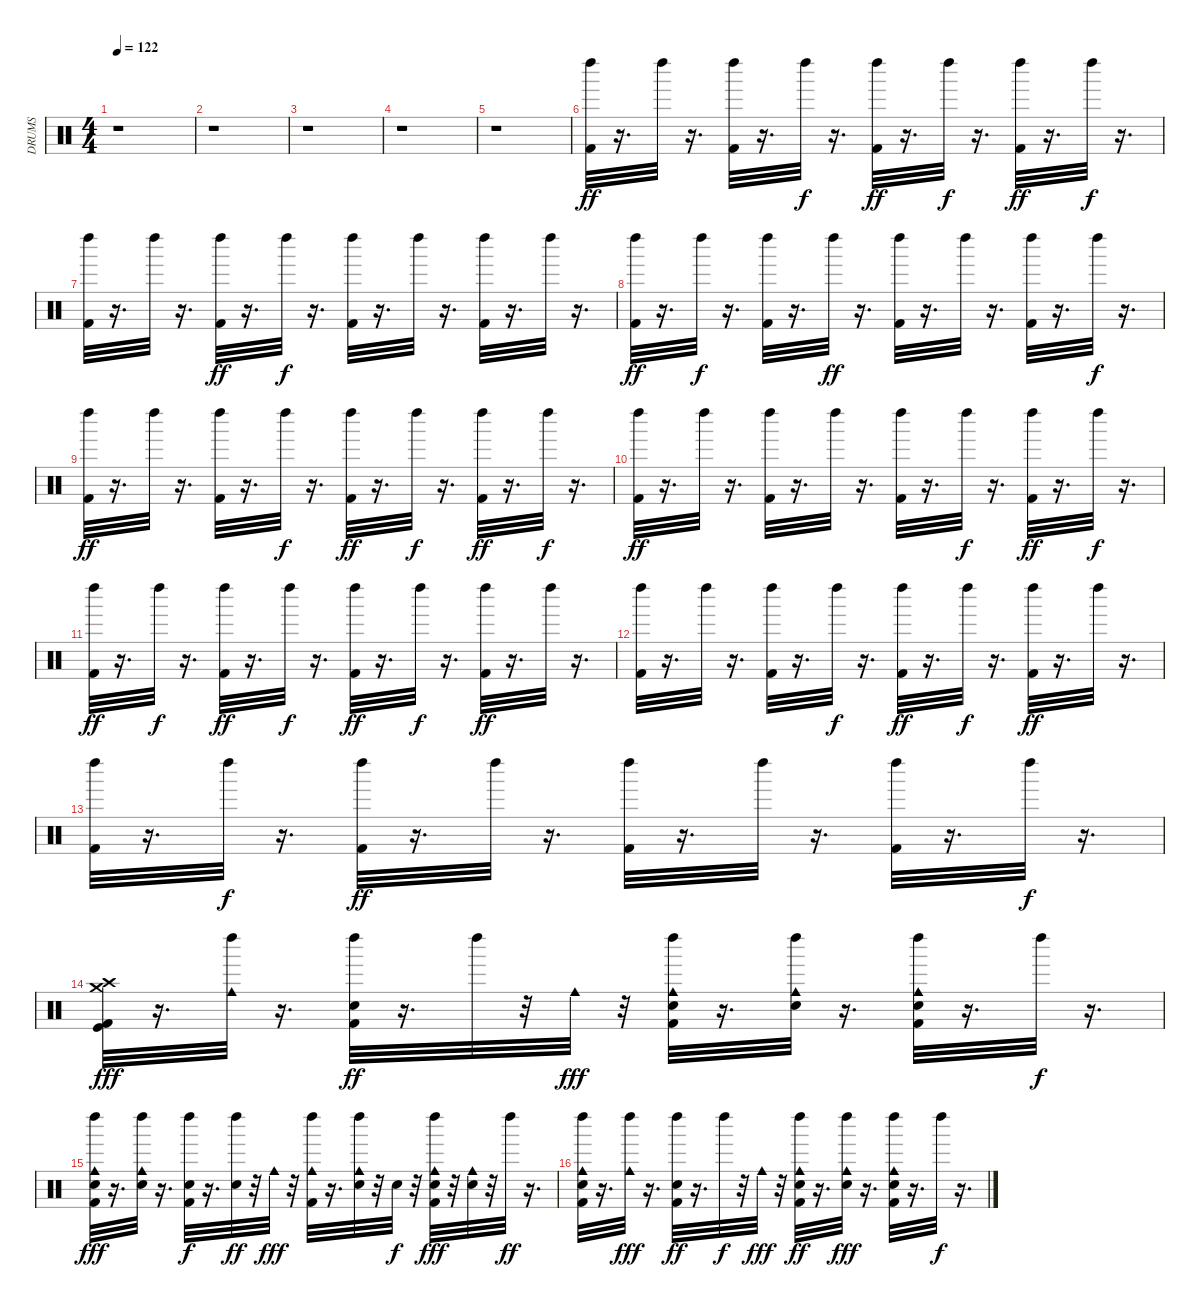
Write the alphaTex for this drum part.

\track ("DRUMS" "DRUMS") {instrument percussion}
\staff {score}
\articulation defaults
\ts (4 4)
\tempo 122
\clef neutral
\ks c
r.1{dy ff} |
r.1 |
r.1 |
r.1 |
r.1 |
("Left Maraca (hit)" "Kick (hit) 2").32 r.16{d} "Left Maraca (hit)".32 r.16{d} ("Left Maraca (hit)" "Kick (hit) 2").32 r.16{d} "Left Maraca (hit)".32{dy f} r.16{d} ("Left Maraca (hit)" "Kick (hit) 2").32{dy ff} r.16{d} "Left Maraca (hit)".32{dy f} r.16{d} ("Left Maraca (hit)" "Kick (hit) 2").32{dy ff} r.16{d} "Left Maraca (hit)".32{dy f} r.16{d} |
("Left Maraca (hit)" "Kick (hit) 2").32 r.16{d} "Left Maraca (hit)".32 r.16{d} ("Left Maraca (hit)" "Kick (hit) 2").32{dy ff} r.16{d} "Left Maraca (hit)".32{dy f} r.16{d} ("Left Maraca (hit)" "Kick (hit) 2").32 r.16{d} "Left Maraca (hit)".32 r.16{d} ("Left Maraca (hit)" "Kick (hit) 2").32 r.16{d} "Left Maraca (hit)".32 r.16{d} |
("Left Maraca (hit)" "Kick (hit) 2").32{dy ff} r.16{d} "Left Maraca (hit)".32{dy f} r.16{d} ("Left Maraca (hit)" "Kick (hit) 2").32 r.16{d} "Left Maraca (hit)".32{dy ff} r.16{d} ("Left Maraca (hit)" "Kick (hit) 2").32 r.16{d} "Left Maraca (hit)".32 r.16{d} ("Left Maraca (hit)" "Kick (hit) 2").32 r.16{d} "Left Maraca (hit)".32{dy f} r.16{d} |
("Left Maraca (hit)" "Kick (hit) 2").32{dy ff} r.16{d} "Left Maraca (hit)".32 r.16{d} ("Left Maraca (hit)" "Kick (hit) 2").32 r.16{d} "Left Maraca (hit)".32{dy f} r.16{d} ("Left Maraca (hit)" "Kick (hit) 2").32{dy ff} r.16{d} "Left Maraca (hit)".32{dy f} r.16{d} ("Left Maraca (hit)" "Kick (hit) 2").32{dy ff} r.16{d} "Left Maraca (hit)".32{dy f} r.16{d} |
("Left Maraca (hit)" "Kick (hit) 2").32{dy ff} r.16{d} "Left Maraca (hit)".32 r.16{d} ("Left Maraca (hit)" "Kick (hit) 2").32 r.16{d} "Left Maraca (hit)".32 r.16{d} ("Left Maraca (hit)" "Kick (hit) 2").32 r.16{d} "Left Maraca (hit)".32{dy f} r.16{d} ("Left Maraca (hit)" "Kick (hit) 2").32{dy ff} r.16{d} "Left Maraca (hit)".32{dy f} r.16{d} |
("Left Maraca (hit)" "Kick (hit) 2").32{dy ff} r.16{d} "Left Maraca (hit)".32{dy f} r.16{d} ("Left Maraca (hit)" "Kick (hit) 2").32{dy ff} r.16{d} "Left Maraca (hit)".32{dy f} r.16{d} ("Left Maraca (hit)" "Kick (hit) 2").32{dy ff} r.16{d} "Left Maraca (hit)".32{dy f} r.16{d} ("Left Maraca (hit)" "Kick (hit) 2").32{dy ff} r.16{d} "Left Maraca (hit)".32 r.16{d} |
("Left Maraca (hit)" "Kick (hit) 2").32 r.16{d} "Left Maraca (hit)".32 r.16{d} ("Left Maraca (hit)" "Kick (hit) 2").32 r.16{d} "Left Maraca (hit)".32{dy f} r.16{d} ("Left Maraca (hit)" "Kick (hit) 2").32{dy ff} r.16{d} "Left Maraca (hit)".32{dy f} r.16{d} ("Left Maraca (hit)" "Kick (hit) 2").32{dy ff} r.16{d} "Left Maraca (hit)".32 r.16{d} |
("Left Maraca (hit)" "Kick (hit) 2").32 r.16{d} "Left Maraca (hit)".32{dy f} r.16{d} ("Left Maraca (hit)" "Kick (hit) 2").32{dy ff} r.16{d} "Left Maraca (hit)".32 r.16{d} ("Left Maraca (hit)" "Kick (hit) 2").32 r.16{d} "Left Maraca (hit)".32 r.16{d} ("Left Maraca (hit)" "Kick (hit) 2").32 r.16{d} "Left Maraca (hit)".32{dy f} r.16{d} |
("Crash medium (hit)" "Crash high (hit)" "Kick (hit) 2" "Kick (hit)").32{dy fff} r.16{d} ("Left Maraca (hit)" "Cowbell medium (hit)").32 r.16{d} ("Left Maraca (hit)" "Hand Clap (hit)" "Kick (hit) 2").32{dy ff} r.16{d} "Left Maraca (hit)".32 r.32 "Cowbell medium (hit)".32{dy fff} r.32 ("Left Maraca (hit)" "Cowbell medium (hit)" "Hand Clap (hit)" "Kick (hit) 2").32 r.16{d} ("Left Maraca (hit)" "Cowbell medium (hit)" "Hand Clap (hit)").32 r.16{d} ("Left Maraca (hit)" "Cowbell medium (hit)" "Hand Clap (hit)" "Kick (hit) 2").32 r.16{d} "Left Maraca (hit)".32{dy f} r.16{d} |
("Left Maraca (hit)" "Cowbell medium (hit)" "Hand Clap (hit)" "Kick (hit) 2").32{dy fff} r.16{d} ("Left Maraca (hit)" "Cowbell medium (hit)" "Hand Clap (hit)").32 r.16{d} ("Left Maraca (hit)" "Hand Clap (hit)" "Kick (hit) 2").32{dy f} r.16{d} ("Left Maraca (hit)" "Hand Clap (hit)").32{dy ff} r.32 "Cowbell medium (hit)".32{dy fff} r.32 ("Left Maraca (hit)" "Cowbell medium (hit)" "Kick (hit) 2").32 r.16{d} ("Left Maraca (hit)" "Cowbell medium (hit)" "Hand Clap (hit)").32 r.32 "Hand Clap (hit)".32{dy f} r.32 ("Left Maraca (hit)" "Cowbell medium (hit)" "Hand Clap (hit)" "Kick (hit) 2").32{dy fff} r.32 ("Cowbell medium (hit)" "Hand Clap (hit)").32 r.32 "Left Maraca (hit)".32{dy ff} r.16{d} |
("Left Maraca (hit)" "Cowbell medium (hit)" "Hand Clap (hit)" "Kick (hit) 2").32 r.16{d} ("Left Maraca (hit)" "Cowbell medium (hit)").32{dy fff} r.16{d} ("Left Maraca (hit)" "Hand Clap (hit)" "Kick (hit) 2").32{dy ff} r.16{d} "Left Maraca (hit)".32{dy f} r.32 "Cowbell medium (hit)".32{dy fff} r.32 ("Left Maraca (hit)" "Cowbell medium (hit)" "Hand Clap (hit)" "Kick (hit) 2").32{dy ff} r.16{d} ("Left Maraca (hit)" "Cowbell medium (hit)" "Hand Clap (hit)").32{dy fff} r.16{d} ("Left Maraca (hit)" "Cowbell medium (hit)" "Hand Clap (hit)" "Kick (hit) 2").32 r.16{d} "Left Maraca (hit)".32{dy f} r.16{d}
